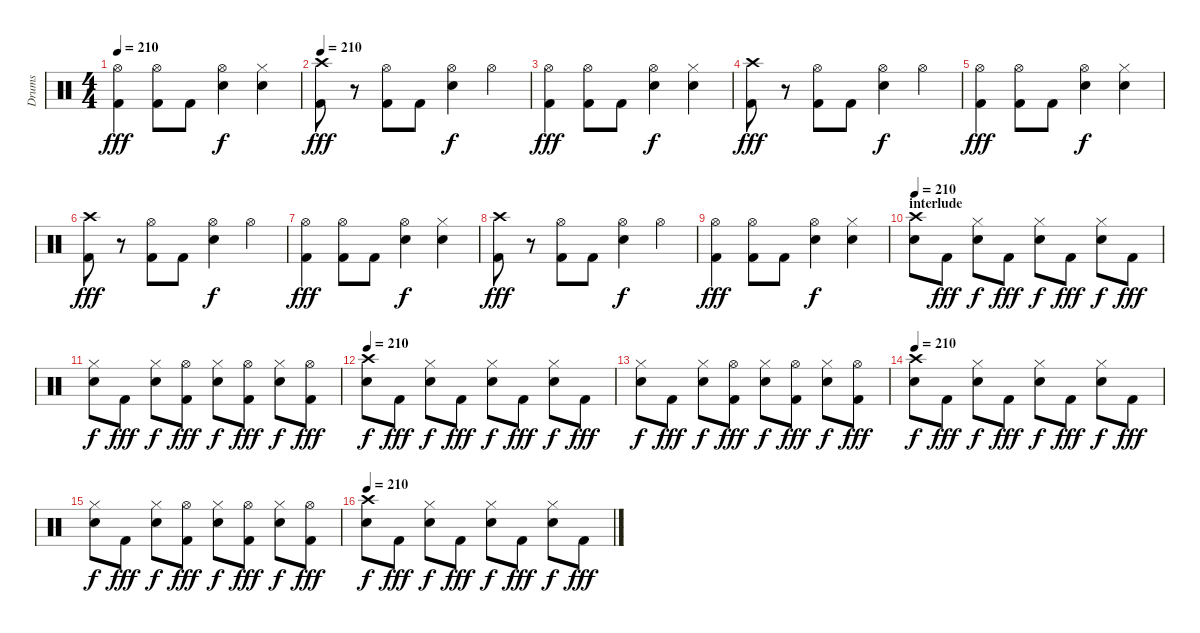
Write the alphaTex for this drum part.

\track ("Drums" "Drums") {instrument percussion}
\staff {score}
\articulation defaults
\ts (4 4)
\tempo 210
\clef neutral
\ks c
("Hi-Hat (open)" "Kick (hit) 2").4{dy fff} ("Hi-Hat (open)" "Kick (hit) 2").8 "Kick (hit) 2".8 ("Hi-Hat (open)" "Snare (hit) 2").4{dy f} ("Hi-Hat (closed)" "Snare (hit) 2").4 |
\tempo 210
("Crash high (hit)" "Kick (hit) 2").8{dy fff} r.8 ("Hi-Hat (open)" "Kick (hit) 2").8 "Kick (hit) 2".8 ("Hi-Hat (open)" "Snare (hit) 2").4{dy f} "Hi-Hat (open)".4 |
("Hi-Hat (open)" "Kick (hit) 2").4{dy fff} ("Hi-Hat (open)" "Kick (hit) 2").8 "Kick (hit) 2".8 ("Hi-Hat (open)" "Snare (hit) 2").4{dy f} ("Hi-Hat (closed)" "Snare (hit) 2").4 |
("Crash high (hit)" "Kick (hit) 2").8{dy fff} r.8 ("Hi-Hat (open)" "Kick (hit) 2").8 "Kick (hit) 2".8 ("Hi-Hat (open)" "Snare (hit) 2").4{dy f} "Hi-Hat (open)".4 |
("Hi-Hat (open)" "Kick (hit) 2").4{dy fff} ("Hi-Hat (open)" "Kick (hit) 2").8 "Kick (hit) 2".8 ("Hi-Hat (open)" "Snare (hit) 2").4{dy f} ("Hi-Hat (closed)" "Snare (hit) 2").4 |
("Crash high (hit)" "Kick (hit) 2").8{dy fff} r.8 ("Hi-Hat (open)" "Kick (hit) 2").8 "Kick (hit) 2".8 ("Hi-Hat (open)" "Snare (hit) 2").4{dy f} "Hi-Hat (open)".4 |
("Hi-Hat (open)" "Kick (hit) 2").4{dy fff} ("Hi-Hat (open)" "Kick (hit) 2").8 "Kick (hit) 2".8 ("Hi-Hat (open)" "Snare (hit) 2").4{dy f} ("Hi-Hat (closed)" "Snare (hit) 2").4 |
("Crash high (hit)" "Kick (hit) 2").8{dy fff} r.8 ("Hi-Hat (open)" "Kick (hit) 2").8 "Kick (hit) 2".8 ("Hi-Hat (open)" "Snare (hit) 2").4{dy f} "Hi-Hat (open)".4 |
("Hi-Hat (open)" "Kick (hit) 2").4{dy fff} ("Hi-Hat (open)" "Kick (hit) 2").8 "Kick (hit) 2".8 ("Hi-Hat (open)" "Snare (hit) 2").4{dy f} ("Hi-Hat (closed)" "Snare (hit) 2").4 |
\section ("" "interlude")
\tempo 210
("Crash high (hit)" "Snare (hit) 2").8 "Kick (hit) 2".8{dy fff} ("Hi-Hat (closed)" "Snare (hit) 2").8{dy f} "Kick (hit) 2".8{dy fff} ("Hi-Hat (closed)" "Snare (hit) 2").8{dy f} "Kick (hit) 2".8{dy fff} ("Hi-Hat (closed)" "Snare (hit) 2").8{dy f} "Kick (hit) 2".8{dy fff} |
("Hi-Hat (closed)" "Snare (hit) 2").8{dy f} "Kick (hit) 2".8{dy fff} ("Hi-Hat (closed)" "Snare (hit) 2").8{dy f} ("Hi-Hat (open)" "Kick (hit) 2").8{dy fff} ("Hi-Hat (closed)" "Snare (hit) 2").8{dy f} ("Hi-Hat (open)" "Kick (hit) 2").8{dy fff} ("Hi-Hat (closed)" "Snare (hit) 2").8{dy f} ("Hi-Hat (open)" "Kick (hit) 2").8{dy fff} |
\tempo 210
("Crash high (hit)" "Snare (hit) 2").8{dy f} "Kick (hit) 2".8{dy fff} ("Hi-Hat (closed)" "Snare (hit) 2").8{dy f} "Kick (hit) 2".8{dy fff} ("Hi-Hat (closed)" "Snare (hit) 2").8{dy f} "Kick (hit) 2".8{dy fff} ("Hi-Hat (closed)" "Snare (hit) 2").8{dy f} "Kick (hit) 2".8{dy fff} |
("Hi-Hat (closed)" "Snare (hit) 2").8{dy f} "Kick (hit) 2".8{dy fff} ("Hi-Hat (closed)" "Snare (hit) 2").8{dy f} ("Hi-Hat (open)" "Kick (hit) 2").8{dy fff} ("Hi-Hat (closed)" "Snare (hit) 2").8{dy f} ("Hi-Hat (open)" "Kick (hit) 2").8{dy fff} ("Hi-Hat (closed)" "Snare (hit) 2").8{dy f} ("Hi-Hat (open)" "Kick (hit) 2").8{dy fff} |
\tempo 210
("Crash high (hit)" "Snare (hit) 2").8{dy f} "Kick (hit) 2".8{dy fff} ("Hi-Hat (closed)" "Snare (hit) 2").8{dy f} "Kick (hit) 2".8{dy fff} ("Hi-Hat (closed)" "Snare (hit) 2").8{dy f} "Kick (hit) 2".8{dy fff} ("Hi-Hat (closed)" "Snare (hit) 2").8{dy f} "Kick (hit) 2".8{dy fff} |
("Hi-Hat (closed)" "Snare (hit) 2").8{dy f} "Kick (hit) 2".8{dy fff} ("Hi-Hat (closed)" "Snare (hit) 2").8{dy f} ("Hi-Hat (open)" "Kick (hit) 2").8{dy fff} ("Hi-Hat (closed)" "Snare (hit) 2").8{dy f} ("Hi-Hat (open)" "Kick (hit) 2").8{dy fff} ("Hi-Hat (closed)" "Snare (hit) 2").8{dy f} ("Hi-Hat (open)" "Kick (hit) 2").8{dy fff} |
\tempo 210
("Crash high (hit)" "Snare (hit) 2").8{dy f} "Kick (hit) 2".8{dy fff} ("Hi-Hat (closed)" "Snare (hit) 2").8{dy f} "Kick (hit) 2".8{dy fff} ("Hi-Hat (closed)" "Snare (hit) 2").8{dy f} "Kick (hit) 2".8{dy fff} ("Hi-Hat (closed)" "Snare (hit) 2").8{dy f} "Kick (hit) 2".8{dy fff}
